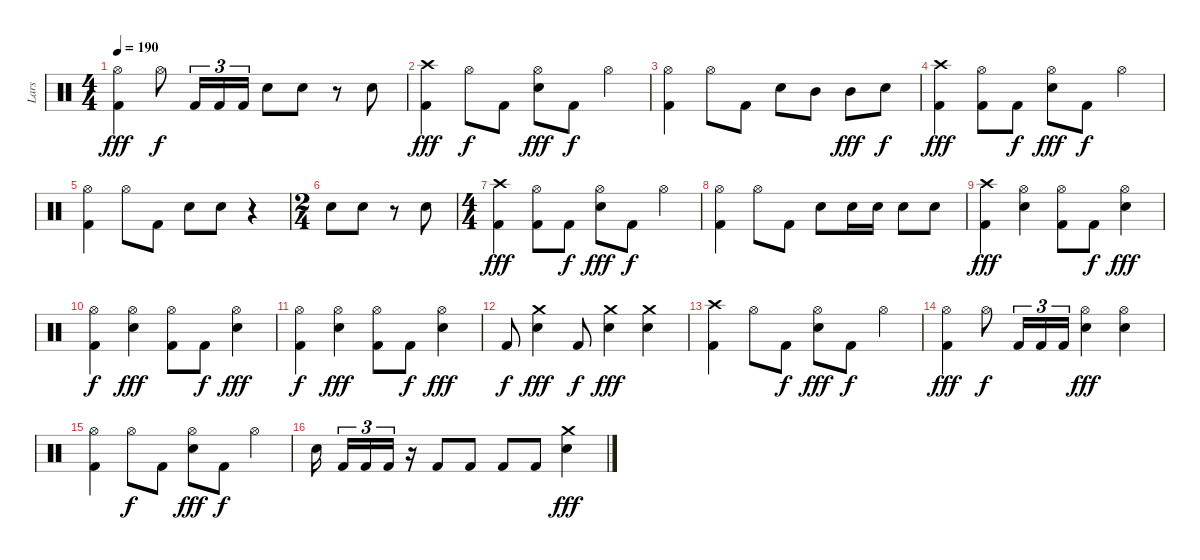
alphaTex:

\track ("Lars" "Lars") {instrument percussion}
\staff {score}
\articulation defaults
\ts (4 4)
\tempo 190
\clef neutral
\ks c
("Hi-Hat (open)" "Kick (hit) 2").4{dy fff} "Hi-Hat (open)".8{dy f} "Kick (hit) 2".16{tu (3 2)} "Kick (hit) 2".16{tu (3 2)} "Kick (hit) 2".16{tu (3 2)} "Snare (hit) 2".8 "Snare (hit) 2".8 r.8 "Snare (hit) 2".8 |
("Crash high (hit)" "Kick (hit) 2").4{dy fff} "Hi-Hat (open)".8{dy f} "Kick (hit) 2".8 ("Hi-Hat (open)" "Snare (hit) 2").8{dy fff} "Kick (hit) 2".8{dy f} "Hi-Hat (open)".4 |
("Hi-Hat (open)" "Kick (hit) 2").4 "Hi-Hat (open)".8 "Kick (hit) 2".8 "Snare (hit) 2".8 "Mid Tom (hit)".8 "Mid Tom (hit)".8{dy fff} "Snare (hit) 2".8{dy f} |
("Crash high (hit)" "Kick (hit) 2").4{dy fff} ("Hi-Hat (open)" "Kick (hit) 2").8 "Kick (hit) 2".8{dy f} ("Hi-Hat (open)" "Snare (hit) 2").8{dy fff} "Kick (hit) 2".8{dy f} "Hi-Hat (open)".4 |
("Hi-Hat (open)" "Kick (hit) 2").4 "Hi-Hat (open)".8 "Kick (hit) 2".8 "Snare (hit) 2".8 "Snare (hit) 2".8 r.4 |
\ts (2 4)
"Snare (hit) 2".8 "Snare (hit) 2".8 r.8 "Snare (hit) 2".8 |
\ts (4 4)
("Crash high (hit)" "Kick (hit) 2").4{dy fff} ("Hi-Hat (open)" "Kick (hit) 2").8 "Kick (hit) 2".8{dy f} ("Hi-Hat (open)" "Snare (hit) 2").8{dy fff} "Kick (hit) 2".8{dy f} "Hi-Hat (open)".4 |
("Hi-Hat (open)" "Kick (hit) 2").4 "Hi-Hat (open)".8 "Kick (hit) 2".8 "Snare (hit) 2".8 "Snare (hit) 2".16 "Snare (hit) 2".16 "Snare (hit) 2".8 "Snare (hit) 2".8 |
("Crash high (hit)" "Kick (hit) 2").4{dy fff} ("Hi-Hat (open)" "Snare (hit) 2").4 ("Hi-Hat (open)" "Kick (hit) 2").8 "Kick (hit) 2".8{dy f} ("Hi-Hat (open)" "Snare (hit) 2").4{dy fff} |
("Hi-Hat (open)" "Kick (hit) 2").4{dy f} ("Hi-Hat (open)" "Snare (hit) 2").4{dy fff} ("Hi-Hat (open)" "Kick (hit) 2").8 "Kick (hit) 2".8{dy f} ("Hi-Hat (open)" "Snare (hit) 2").4{dy fff} |
("Hi-Hat (open)" "Kick (hit) 2").4{dy f} ("Hi-Hat (open)" "Snare (hit) 2").4{dy fff} ("Hi-Hat (open)" "Kick (hit) 2").8 "Kick (hit) 2".8{dy f} ("Hi-Hat (open)" "Snare (hit) 2").4{dy fff} |
"Kick (hit) 2".8{dy f} ("Crash medium (hit)" "Snare (hit) 2").4{dy fff} "Kick (hit) 2".8{dy f} ("Crash medium (hit)" "Snare (hit) 2").4{dy fff} ("Crash medium (hit)" "Snare (hit) 2").4 |
("Crash high (hit)" "Kick (hit) 2").4 "Hi-Hat (open)".8 "Kick (hit) 2".8{dy f} ("Hi-Hat (open)" "Snare (hit) 2").8{dy fff} "Kick (hit) 2".8{dy f} "Hi-Hat (open)".4 |
("Hi-Hat (open)" "Kick (hit) 2").4{dy fff} "Hi-Hat (open)".8{dy f} "Kick (hit) 2".16{tu (3 2)} "Kick (hit) 2".16{tu (3 2)} "Kick (hit) 2".16{tu (3 2)} ("Hi-Hat (open)" "Snare (hit) 2").4{dy fff} ("Hi-Hat (open)" "Snare (hit) 2").4 |
("Hi-Hat (open)" "Kick (hit) 2").4 "Hi-Hat (open)".8{dy f} "Kick (hit) 2".8 ("Hi-Hat (open)" "Snare (hit) 2").8{dy fff} "Kick (hit) 2".8{dy f} "Hi-Hat (open)".4 |
"Snare (hit) 2".16 "Kick (hit) 2".16{tu (3 2)} "Kick (hit) 2".16{tu (3 2)} "Kick (hit) 2".16{tu (3 2)} r.16 "Kick (hit) 2".8 "Kick (hit) 2".8 "Kick (hit) 2".8 "Kick (hit) 2".8 ("Crash medium (hit)" "Snare (hit) 2").4{dy fff}
